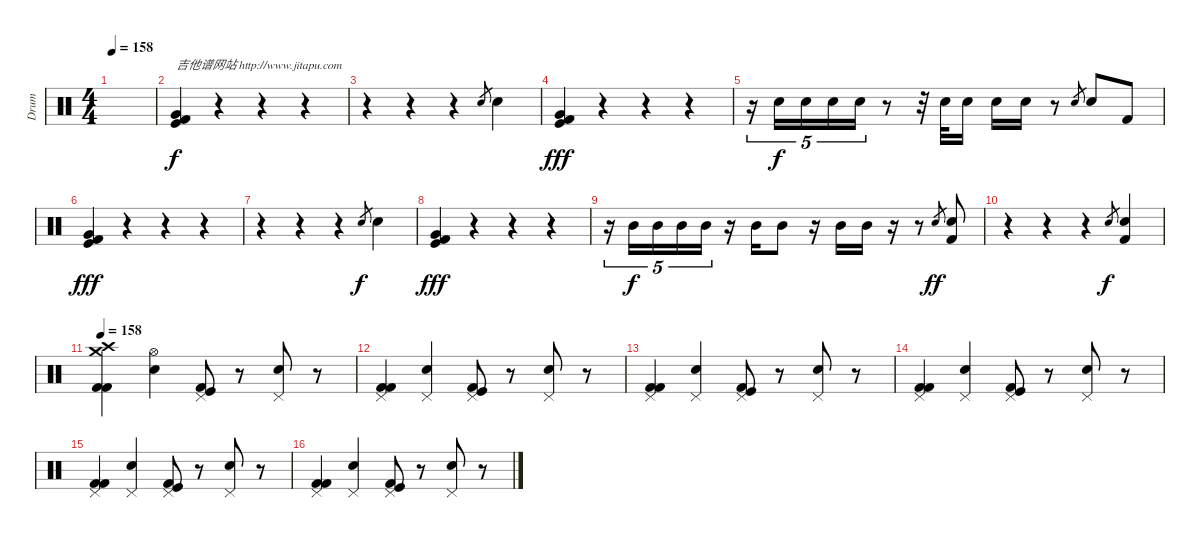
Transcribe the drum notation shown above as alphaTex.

\track ("Drum" "Drum") {instrument percussion}
\staff {score}
\articulation defaults
\ts (4 4)
\tempo 158
\tempo 155
\tempo 158
\clef neutral
\ks c
|
("Very Low Tom (hit)" "Kick (hit)" "Kick (hit) 2").4{txt "吉他谱网站 http://www.jitapu.com"} r.4 r.4 r.4 |
r.4 r.4 r.4 "Electric Snare (hit)".8{gr dy f} "Electric Snare (hit)".4 |
("Very Low Tom (hit)" "Kick (hit)" "Kick (hit) 2").4{dy fff} r.4 r.4 r.4 |
r.16{tu (5 4)} "Electric Snare (hit)".16{tu (5 4) dy f} "Electric Snare (hit)".16{tu (5 4)} "Electric Snare (hit)".16{tu (5 4)} "Electric Snare (hit)".16{tu (5 4)} r.8 r.32 "Electric Snare (hit)".32 "Electric Snare (hit)".16 "Electric Snare (hit)".16 "Electric Snare (hit)".16 r.8 "Electric Snare (hit)".8{gr} "Electric Snare (hit)".8 "Kick (hit) 2".8 |
("Very Low Tom (hit)" "Kick (hit)" "Kick (hit) 2").4{dy fff} r.4 r.4 r.4 |
r.4 r.4 r.4 "Electric Snare (hit)".8{gr dy f} "Electric Snare (hit)".4 |
("Very Low Tom (hit)" "Kick (hit)" "Kick (hit) 2").4{dy fff} r.4 r.4 r.4 |
r.16{tu (5 4)} "Mid Tom (hit)".16{tu (5 4) dy f} "Mid Tom (hit)".16{tu (5 4)} "Mid Tom (hit)".16{tu (5 4)} "Mid Tom (hit)".16{tu (5 4)} r.16 "Mid Tom (hit)".16 "Mid Tom (hit)".8 r.16 "Mid Tom (hit)".16 "Mid Tom (hit)".16 r.16 r.8 "Electric Snare (hit)".8{gr dy ff} ("Kick (hit) 2" "Electric Snare (hit)").8 |
r.4 r.4 r.4 "Electric Snare (hit)".8{gr dy f} ("Electric Snare (hit)" "Kick (hit) 2").4 |
\tempo 158
("Crash high (hit)" "Kick (hit) 2" "Kick (hit) 2" "Crash medium (hit)").4 ("Hi-Hat (open)" "Electric Snare (hit)").4 ("Pedal Hi-Hat (hit)" "Kick (hit) 2" "Kick (hit)").8 r.8 ("Pedal Hi-Hat (hit)" "Electric Snare (hit)").8 r.8 |
("Pedal Hi-Hat (hit)" "Kick (hit) 2" "Kick (hit) 2").4 ("Pedal Hi-Hat (hit)" "Electric Snare (hit)").4 ("Pedal Hi-Hat (hit)" "Kick (hit) 2" "Kick (hit)").8 r.8 ("Pedal Hi-Hat (hit)" "Electric Snare (hit)").8 r.8 |
("Pedal Hi-Hat (hit)" "Kick (hit) 2" "Kick (hit) 2").4 ("Pedal Hi-Hat (hit)" "Electric Snare (hit)").4 ("Pedal Hi-Hat (hit)" "Kick (hit) 2" "Kick (hit)").8 r.8 ("Pedal Hi-Hat (hit)" "Electric Snare (hit)").8 r.8 |
("Pedal Hi-Hat (hit)" "Kick (hit) 2" "Kick (hit) 2").4 ("Pedal Hi-Hat (hit)" "Electric Snare (hit)").4 ("Pedal Hi-Hat (hit)" "Kick (hit) 2" "Kick (hit)").8 r.8 ("Pedal Hi-Hat (hit)" "Electric Snare (hit)").8 r.8 |
("Pedal Hi-Hat (hit)" "Kick (hit) 2" "Kick (hit) 2").4 ("Pedal Hi-Hat (hit)" "Electric Snare (hit)").4 ("Pedal Hi-Hat (hit)" "Kick (hit) 2" "Kick (hit)").8 r.8 ("Pedal Hi-Hat (hit)" "Electric Snare (hit)").8 r.8 |
("Pedal Hi-Hat (hit)" "Kick (hit) 2" "Kick (hit) 2").4 ("Pedal Hi-Hat (hit)" "Electric Snare (hit)").4 ("Pedal Hi-Hat (hit)" "Kick (hit) 2" "Kick (hit)").8 r.8 ("Pedal Hi-Hat (hit)" "Electric Snare (hit)").8 r.8
